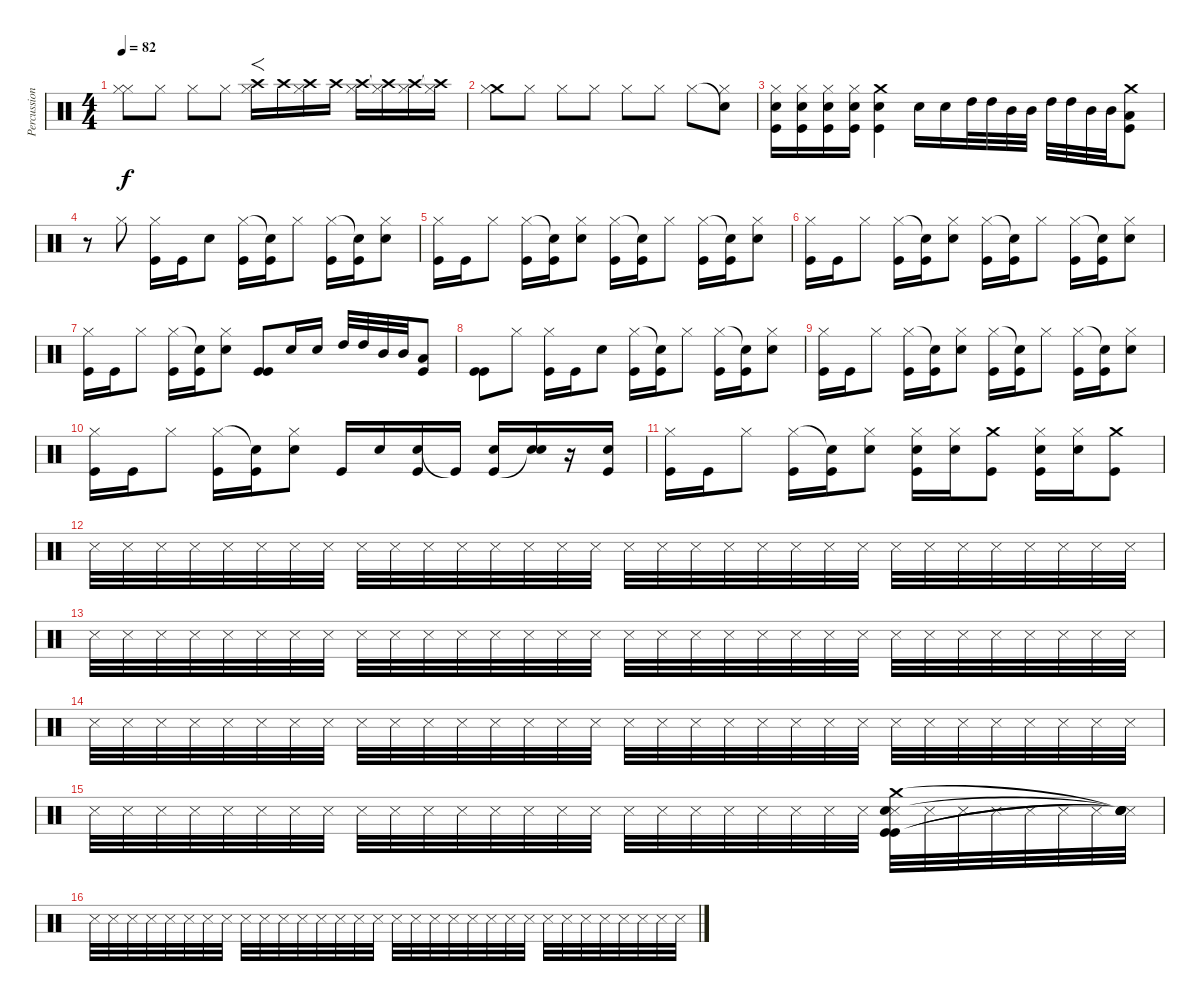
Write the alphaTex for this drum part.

\track ("Percussion" "Percussion") {instrument percussion}
\staff {score}
\articulation defaults
\ts (4 4)
\tempo 82
\clef neutral
\ks c
("Hi-Hat (closed)" "Hi-Hat (closed)").8{dy f} "Hi-Hat (closed)".8 "Hi-Hat (closed)".8 "Hi-Hat (closed)".8{volume 7 balance 0} ("Crash high (hit)" "Hi-Hat (closed)").16{f volume 16 balance 16} "Crash high (hit)".16 ("Crash high (hit)" "Hi-Hat (closed)").16 "Crash high (hit)".16 ("Crash high (hit)" "Hi-Hat (closed)").16 ("Crash high (hit)" "Hi-Hat (closed)"{t}).16 ("Crash high (hit)" "Hi-Hat (closed)").16 ("Crash high (hit)" "Hi-Hat (closed)"{t}).16 |
("Crash medium (hit)" "Hi-Hat (closed)").8{balance 8} "Hi-Hat (closed)".8 "Hi-Hat (closed)".8 "Hi-Hat (closed)".8 "Hi-Hat (closed)".8 "Hi-Hat (closed)".8 "Hi-Hat (closed)".8 ("Snare (hit)"{t} "Hi-Hat (closed)").8 |
("Hi-Hat (closed)" "Snare (hit) 2" "Kick (hit)").16 ("Hi-Hat (closed)" "Snare (hit) 2" "Kick (hit)").16 ("Hi-Hat (closed)" "Snare (hit) 2" "Kick (hit)").16 ("Hi-Hat (closed)" "Snare (hit) 2" "Kick (hit)").16 ("Crash medium (hit)" "Snare (hit) 2" "Kick (hit)").4 "Snare (hit) 2".16 "Snare (hit) 2".16 "High Tom (hit)".32 "High Tom (hit)".32 "Mid Tom (hit)".32 "Mid Tom (hit)".32 "High Tom (hit)".32 "High Tom (hit)".32 "Mid Tom (hit)".32 "Mid Tom (hit)".32 ("Crash medium (hit)" "Low Tom (hit)" "Kick (hit)").8 |
r.8 "Hi-Hat (closed)".8 ("Hi-Hat (closed)" "Kick (hit)").16 "Kick (hit)".16 "Snare (hit) 2".8 ("Hi-Hat (closed)" "Kick (hit)").16 ("Snare (hit)"{t} "Kick (hit)").16 "Hi-Hat (closed)".8 ("Hi-Hat (closed)" "Kick (hit)").16 ("Snare (hit)"{t} "Kick (hit)").16 ("Hi-Hat (closed)" "Snare (hit) 2").8 |
("Hi-Hat (closed)" "Kick (hit)").16 "Kick (hit)".16 "Hi-Hat (closed)".8 ("Hi-Hat (closed)" "Kick (hit)").16 ("Snare (hit)"{t} "Kick (hit)").16 ("Hi-Hat (closed)" "Snare (hit) 2").8 ("Hi-Hat (closed)" "Kick (hit)").16 ("Snare (hit)"{t} "Kick (hit)").16 "Hi-Hat (closed)".8 ("Hi-Hat (closed)" "Kick (hit)").16 ("Snare (hit)"{t} "Kick (hit)").16 ("Hi-Hat (closed)" "Snare (hit) 2").8 |
("Hi-Hat (closed)" "Kick (hit)").16 "Kick (hit)".16 "Hi-Hat (closed)".8 ("Hi-Hat (closed)" "Kick (hit)").16 ("Snare (hit)"{t} "Kick (hit)").16 ("Hi-Hat (closed)" "Snare (hit) 2").8 ("Hi-Hat (closed)" "Kick (hit)").16 ("Snare (hit)"{t} "Kick (hit)").16 "Hi-Hat (closed)".8 ("Hi-Hat (closed)" "Kick (hit)").16 ("Snare (hit)"{t} "Kick (hit)").16 ("Hi-Hat (closed)" "Snare (hit) 2").8 |
("Hi-Hat (closed)" "Kick (hit)").16 "Kick (hit)".16 "Hi-Hat (closed)".8 ("Hi-Hat (closed)" "Kick (hit)").16 ("Snare (hit)"{t} "Kick (hit)").16 ("Hi-Hat (closed)" "Snare (hit) 2").8 ("Kick (hit)" "Kick (hit)").8 "Snare (hit) 2".16 "Snare (hit) 2".16 "High Tom (hit)".32 "High Tom (hit)".32 "Mid Tom (hit)".32 "Mid Tom (hit)".32 ("Low Tom (hit)" "Kick (hit)").8 |
("Kick (hit)" "Kick (hit)").8 "Hi-Hat (closed)".8 ("Hi-Hat (closed)" "Kick (hit)").16 "Kick (hit)".16 "Snare (hit) 2".8 ("Hi-Hat (closed)" "Kick (hit)").16 ("Snare (hit)"{t} "Kick (hit)").16 "Hi-Hat (closed)".8 ("Hi-Hat (closed)" "Kick (hit)").16 ("Snare (hit)"{t} "Kick (hit)").16 ("Hi-Hat (closed)" "Snare (hit) 2").8 |
("Hi-Hat (closed)" "Kick (hit)").16 "Kick (hit)".16 "Hi-Hat (closed)".8 ("Hi-Hat (closed)" "Kick (hit)").16 ("Snare (hit)"{t} "Kick (hit)").16 ("Hi-Hat (closed)" "Snare (hit) 2").8 ("Hi-Hat (closed)" "Kick (hit)").16 ("Snare (hit)"{t} "Kick (hit)").16 "Hi-Hat (closed)".8 ("Hi-Hat (closed)" "Kick (hit)").16 ("Snare (hit)"{t} "Kick (hit)").16 ("Hi-Hat (closed)" "Snare (hit) 2").8 |
("Hi-Hat (closed)" "Kick (hit)").16 "Kick (hit)".16 "Hi-Hat (closed)".8 ("Hi-Hat (closed)" "Kick (hit)").16 ("Snare (hit)"{t} "Kick (hit)").16 ("Hi-Hat (closed)" "Snare (hit) 2").8 "Kick (hit)".16 "Snare (hit) 2".16 ("Snare (hit) 2" "Kick (hit)").16 "Kick (hit)"{t}.16 ("Snare (hit) 2" "Kick (hit)").16 ("Snare (hit) 2" "Snare (hit)"{t}).16 r.16 ("Snare (hit) 2" "Kick (hit)").16 |
("Hi-Hat (closed)" "Kick (hit)").16 "Kick (hit)".16 "Hi-Hat (closed)".8 ("Hi-Hat (closed)" "Kick (hit)").16 ("Snare (hit)"{t} "Kick (hit)").16 ("Hi-Hat (closed)" "Snare (hit) 2").8 ("Hi-Hat (closed)" "Snare (hit) 2" "Kick (hit)").16 ("Hi-Hat (closed)" "Snare (hit) 2").16 ("Crash medium (hit)" "Kick (hit)").8 ("Hi-Hat (closed)" "Snare (hit) 2" "Kick (hit)").16 ("Hi-Hat (closed)" "Snare (hit) 2").16 ("Crash medium (hit)" "Kick (hit)").8{volume 7} |
"Snare (side stick) 3".32 "Snare (side stick) 3".32 "Snare (side stick) 3".32 "Snare (side stick) 3".32 "Snare (side stick) 3".32 "Snare (side stick) 3".32 "Snare (side stick) 3".32 "Snare (side stick) 3".32 "Snare (side stick) 3".32 "Snare (side stick) 3".32 "Snare (side stick) 3".32 "Snare (side stick) 3".32 "Snare (side stick) 3".32 "Snare (side stick) 3".32 "Snare (side stick) 3".32 "Snare (side stick) 3".32 "Snare (side stick) 3".32 "Snare (side stick) 3".32 "Snare (side stick) 3".32 "Snare (side stick) 3".32 "Snare (side stick) 3".32 "Snare (side stick) 3".32 "Snare (side stick) 3".32 "Snare (side stick) 3".32 "Snare (side stick) 3".32 "Snare (side stick) 3".32 "Snare (side stick) 3".32 "Snare (side stick) 3".32 "Snare (side stick) 3".32 "Snare (side stick) 3".32 "Snare (side stick) 3".32 "Snare (side stick) 3".32 |
"Snare (side stick) 3".32 "Snare (side stick) 3".32 "Snare (side stick) 3".32 "Snare (side stick) 3".32 "Snare (side stick) 3".32 "Snare (side stick) 3".32 "Snare (side stick) 3".32 "Snare (side stick) 3".32 "Snare (side stick) 3".32 "Snare (side stick) 3".32 "Snare (side stick) 3".32 "Snare (side stick) 3".32 "Snare (side stick) 3".32 "Snare (side stick) 3".32 "Snare (side stick) 3".32 "Snare (side stick) 3".32 "Snare (side stick) 3".32 "Snare (side stick) 3".32 "Snare (side stick) 3".32 "Snare (side stick) 3".32 "Snare (side stick) 3".32 "Snare (side stick) 3".32 "Snare (side stick) 3".32 "Snare (side stick) 3".32 "Snare (side stick) 3".32 "Snare (side stick) 3".32 "Snare (side stick) 3".32 "Snare (side stick) 3".32 "Snare (side stick) 3".32 "Snare (side stick) 3".32 "Snare (side stick) 3".32 "Snare (side stick) 3".32 |
"Snare (side stick) 3".32 "Snare (side stick) 3".32 "Snare (side stick) 3".32 "Snare (side stick) 3".32 "Snare (side stick) 3".32 "Snare (side stick) 3".32 "Snare (side stick) 3".32 "Snare (side stick) 3".32 "Snare (side stick) 3".32 "Snare (side stick) 3".32 "Snare (side stick) 3".32 "Snare (side stick) 3".32 "Snare (side stick) 3".32 "Snare (side stick) 3".32 "Snare (side stick) 3".32 "Snare (side stick) 3".32 "Snare (side stick) 3".32 "Snare (side stick) 3".32 "Snare (side stick) 3".32 "Snare (side stick) 3".32 "Snare (side stick) 3".32 "Snare (side stick) 3".32 "Snare (side stick) 3".32 "Snare (side stick) 3".32 "Snare (side stick) 3".32 "Snare (side stick) 3".32 "Snare (side stick) 3".32 "Snare (side stick) 3".32 "Snare (side stick) 3".32 "Snare (side stick) 3".32 "Snare (side stick) 3".32 "Snare (side stick) 3".32 |
"Snare (side stick) 3".32 "Snare (side stick) 3".32 "Snare (side stick) 3".32 "Snare (side stick) 3".32 "Snare (side stick) 3".32 "Snare (side stick) 3".32 "Snare (side stick) 3".32 "Snare (side stick) 3".32 "Snare (side stick) 3".32 "Snare (side stick) 3".32 "Snare (side stick) 3".32 "Snare (side stick) 3".32 "Snare (side stick) 3".32 "Snare (side stick) 3".32 "Snare (side stick) 3".32 "Snare (side stick) 3".32 "Snare (side stick) 3".32 "Snare (side stick) 3".32 "Snare (side stick) 3".32 "Snare (side stick) 3".32 "Snare (side stick) 3".32 "Snare (side stick) 3".32 "Snare (side stick) 3".32 "Snare (side stick) 3".32 ("Snare (side stick) 3" "Crash medium (hit)" "Snare (hit) 2" "Kick (hit)" "Kick (hit)").32 "Snare (side stick) 3".32 "Snare (side stick) 3".32 "Snare (side stick) 3".32 "Snare (side stick) 3".32 "Snare (side stick) 3".32 "Snare (side stick) 3".32 ("Snare (side stick) 3" "Snare (hit)"{t} "Snare (hit)"{t} "Snare (hit)"{t} "Snare (hit)"{t}).32 |
"Snare (side stick) 3".32 "Snare (side stick) 3".32 "Snare (side stick) 3".32 "Snare (side stick) 3".32 "Snare (side stick) 3".32 "Snare (side stick) 3".32 "Snare (side stick) 3".32 "Snare (side stick) 3".32 "Snare (side stick) 3".32 "Snare (side stick) 3".32 "Snare (side stick) 3".32 "Snare (side stick) 3".32 "Snare (side stick) 3".32 "Snare (side stick) 3".32 "Snare (side stick) 3".32 "Snare (side stick) 3".32 "Snare (side stick) 3".32 "Snare (side stick) 3".32 "Snare (side stick) 3".32 "Snare (side stick) 3".32 "Snare (side stick) 3".32 "Snare (side stick) 3".32 "Snare (side stick) 3".32 "Snare (side stick) 3".32 "Snare (side stick) 3".32 "Snare (side stick) 3".32 "Snare (side stick) 3".32 "Snare (side stick) 3".32 "Snare (side stick) 3".32 "Snare (side stick) 3".32 "Snare (side stick) 3".32 "Snare (side stick) 3".32
